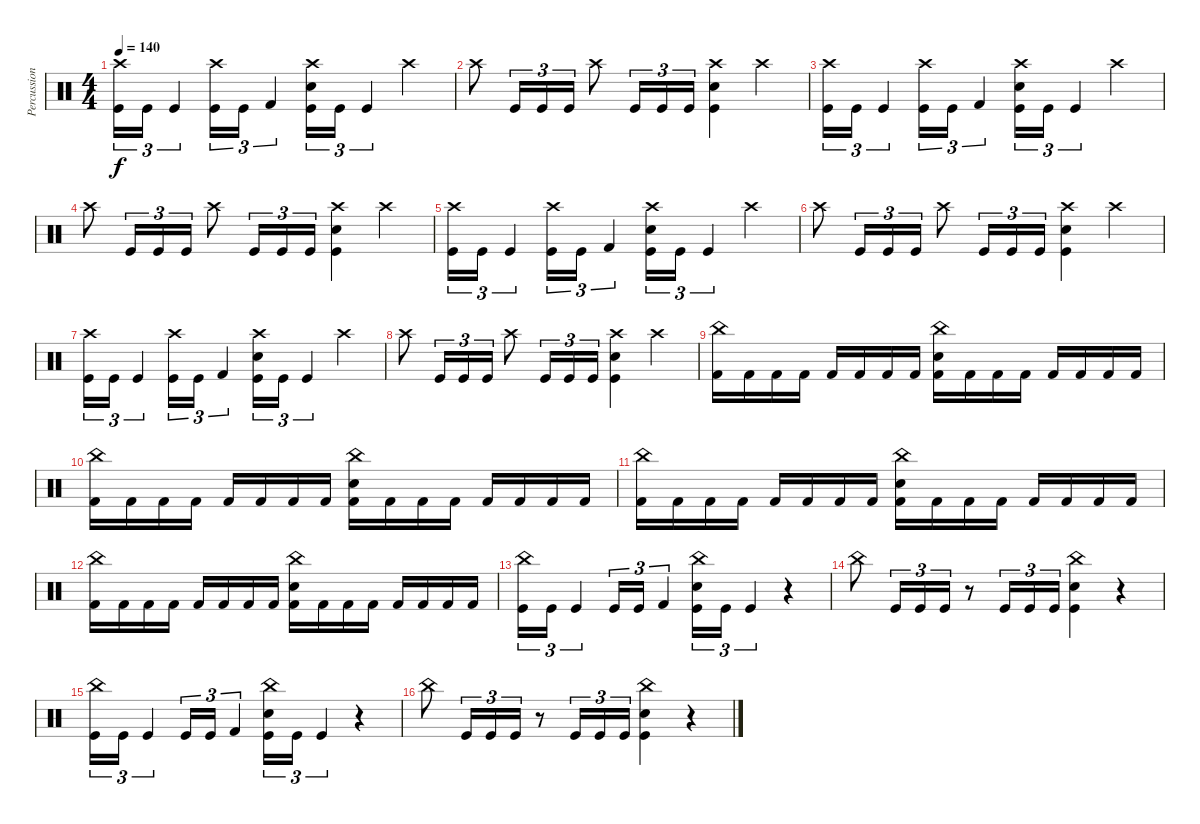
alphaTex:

\track ("Percussion" "Percussion") {instrument percussion}
\staff {score}
\articulation defaults
\ts (4 4)
\tempo 160
\tempo 140
\clef neutral
\ks c
("Crash high (hit)" "Kick (hit)").16{tu (3 2) dy f} "Kick (hit)".16{tu (3 2)} "Kick (hit)".4{tu (3 2)} ("Crash high (hit)" "Kick (hit)").16{tu (3 2)} "Kick (hit)".16{tu (3 2)} "Kick (hit) 2".4{tu (3 2)} ("Crash high (hit)" "Snare (hit) 2" "Kick (hit)").16{tu (3 2)} "Kick (hit)".16{tu (3 2)} "Kick (hit)".4{tu (3 2)} "Crash high (hit)".4 |
"Crash high (hit)".8 "Kick (hit)".16{tu (3 2)} "Kick (hit)".16{tu (3 2)} "Kick (hit)".16{tu (3 2)} "Crash high (hit)".8 "Kick (hit)".16{tu (3 2)} "Kick (hit)".16{tu (3 2)} "Kick (hit)".16{tu (3 2)} ("Crash high (hit)" "Snare (hit) 2" "Kick (hit)").4 "Crash high (hit)".4 |
("Crash high (hit)" "Kick (hit)").16{tu (3 2)} "Kick (hit)".16{tu (3 2)} "Kick (hit)".4{tu (3 2)} ("Crash high (hit)" "Kick (hit)").16{tu (3 2)} "Kick (hit)".16{tu (3 2)} "Kick (hit) 2".4{tu (3 2)} ("Crash high (hit)" "Snare (hit) 2" "Kick (hit)").16{tu (3 2)} "Kick (hit)".16{tu (3 2)} "Kick (hit)".4{tu (3 2)} "Crash high (hit)".4 |
"Crash high (hit)".8 "Kick (hit)".16{tu (3 2)} "Kick (hit)".16{tu (3 2)} "Kick (hit)".16{tu (3 2)} "Crash high (hit)".8 "Kick (hit)".16{tu (3 2)} "Kick (hit)".16{tu (3 2)} "Kick (hit)".16{tu (3 2)} ("Crash high (hit)" "Snare (hit) 2" "Kick (hit)").4 "Crash high (hit)".4 |
("Crash high (hit)" "Kick (hit)").16{tu (3 2)} "Kick (hit)".16{tu (3 2)} "Kick (hit)".4{tu (3 2)} ("Crash high (hit)" "Kick (hit)").16{tu (3 2)} "Kick (hit)".16{tu (3 2)} "Kick (hit) 2".4{tu (3 2)} ("Crash high (hit)" "Snare (hit) 2" "Kick (hit)").16{tu (3 2)} "Kick (hit)".16{tu (3 2)} "Kick (hit)".4{tu (3 2)} "Crash high (hit)".4 |
"Crash high (hit)".8 "Kick (hit)".16{tu (3 2)} "Kick (hit)".16{tu (3 2)} "Kick (hit)".16{tu (3 2)} "Crash high (hit)".8 "Kick (hit)".16{tu (3 2)} "Kick (hit)".16{tu (3 2)} "Kick (hit)".16{tu (3 2)} ("Crash high (hit)" "Snare (hit) 2" "Kick (hit)").4 "Crash high (hit)".4 |
("Crash high (hit)" "Kick (hit)").16{tu (3 2)} "Kick (hit)".16{tu (3 2)} "Kick (hit)".4{tu (3 2)} ("Crash high (hit)" "Kick (hit)").16{tu (3 2)} "Kick (hit)".16{tu (3 2)} "Kick (hit) 2".4{tu (3 2)} ("Crash high (hit)" "Snare (hit) 2" "Kick (hit)").16{tu (3 2)} "Kick (hit)".16{tu (3 2)} "Kick (hit)".4{tu (3 2)} "Crash high (hit)".4 |
"Crash high (hit)".8 "Kick (hit)".16{tu (3 2)} "Kick (hit)".16{tu (3 2)} "Kick (hit)".16{tu (3 2)} "Crash high (hit)".8 "Kick (hit)".16{tu (3 2)} "Kick (hit)".16{tu (3 2)} "Kick (hit)".16{tu (3 2)} ("Crash high (hit)" "Snare (hit) 2" "Kick (hit)").4 "Crash high (hit)".4 |
("China (hit)" "Kick (hit) 2").16 "Kick (hit) 2".16 "Kick (hit) 2".16 "Kick (hit) 2".16 "Kick (hit) 2".16 "Kick (hit) 2".16 "Kick (hit) 2".16 "Kick (hit) 2".16 ("Snare (hit) 2" "China (hit)" "Kick (hit) 2").16 "Kick (hit) 2".16 "Kick (hit) 2".16 "Kick (hit) 2".16 "Kick (hit) 2".16 "Kick (hit) 2".16 "Kick (hit) 2".16 "Kick (hit) 2".16 |
("China (hit)" "Kick (hit) 2").16 "Kick (hit) 2".16 "Kick (hit) 2".16 "Kick (hit) 2".16 "Kick (hit) 2".16 "Kick (hit) 2".16 "Kick (hit) 2".16 "Kick (hit) 2".16 ("Snare (hit) 2" "China (hit)" "Kick (hit) 2").16 "Kick (hit) 2".16 "Kick (hit) 2".16 "Kick (hit) 2".16 "Kick (hit) 2".16 "Kick (hit) 2".16 "Kick (hit) 2".16 "Kick (hit) 2".16 |
("China (hit)" "Kick (hit) 2").16 "Kick (hit) 2".16 "Kick (hit) 2".16 "Kick (hit) 2".16 "Kick (hit) 2".16 "Kick (hit) 2".16 "Kick (hit) 2".16 "Kick (hit) 2".16 ("Snare (hit) 2" "China (hit)" "Kick (hit) 2").16 "Kick (hit) 2".16 "Kick (hit) 2".16 "Kick (hit) 2".16 "Kick (hit) 2".16 "Kick (hit) 2".16 "Kick (hit) 2".16 "Kick (hit) 2".16 |
("China (hit)" "Kick (hit) 2").16 "Kick (hit) 2".16 "Kick (hit) 2".16 "Kick (hit) 2".16 "Kick (hit) 2".16 "Kick (hit) 2".16 "Kick (hit) 2".16 "Kick (hit) 2".16 ("Snare (hit) 2" "China (hit)" "Kick (hit) 2").16 "Kick (hit) 2".16 "Kick (hit) 2".16 "Kick (hit) 2".16 "Kick (hit) 2".16 "Kick (hit) 2".16 "Kick (hit) 2".16 "Kick (hit) 2".16 |
("China (hit)" "Kick (hit)").16{tu (3 2)} "Kick (hit)".16{tu (3 2)} "Kick (hit)".4{tu (3 2)} "Kick (hit)".16{tu (3 2)} "Kick (hit)".16{tu (3 2)} "Kick (hit) 2".4{tu (3 2)} ("China (hit)" "Snare (hit) 2" "Kick (hit)").16{tu (3 2)} "Kick (hit)".16{tu (3 2)} "Kick (hit)".4{tu (3 2)} r.4 |
"China (hit)".8 "Kick (hit)".16{tu (3 2)} "Kick (hit)".16{tu (3 2)} "Kick (hit)".16{tu (3 2)} r.8 "Kick (hit)".16{tu (3 2)} "Kick (hit)".16{tu (3 2)} "Kick (hit)".16{tu (3 2)} ("China (hit)" "Snare (hit) 2" "Kick (hit)").4 r.4 |
("China (hit)" "Kick (hit)").16{tu (3 2)} "Kick (hit)".16{tu (3 2)} "Kick (hit)".4{tu (3 2)} "Kick (hit)".16{tu (3 2)} "Kick (hit)".16{tu (3 2)} "Kick (hit) 2".4{tu (3 2)} ("China (hit)" "Snare (hit) 2" "Kick (hit)").16{tu (3 2)} "Kick (hit)".16{tu (3 2)} "Kick (hit)".4{tu (3 2)} r.4 |
"China (hit)".8 "Kick (hit)".16{tu (3 2)} "Kick (hit)".16{tu (3 2)} "Kick (hit)".16{tu (3 2)} r.8 "Kick (hit)".16{tu (3 2)} "Kick (hit)".16{tu (3 2)} "Kick (hit)".16{tu (3 2)} ("China (hit)" "Snare (hit) 2" "Kick (hit)").4 r.4
